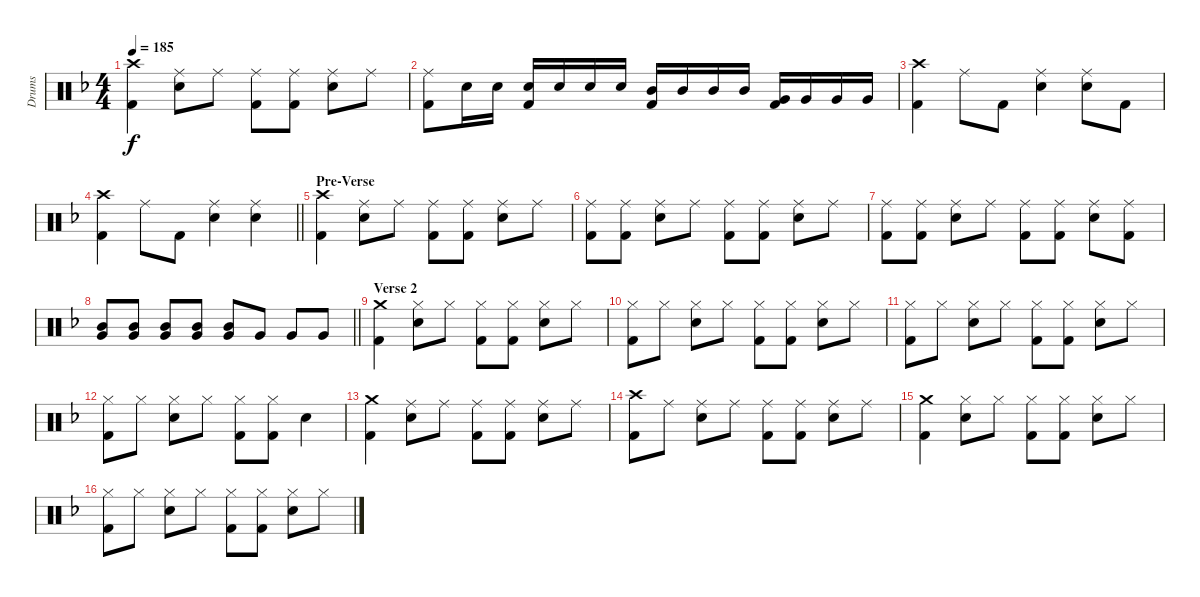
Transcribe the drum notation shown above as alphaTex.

\track ("Drums" "Drums") {instrument percussion}
\staff {score}
\articulation defaults
\ts (4 4)
\tempo 185
\clef neutral
\ks f
("Crash high (hit)" "Kick (hit) 2").4{dy f} ("Ride (middle)" "Snare (hit) 2").8 "Ride (middle)".8 ("Ride (middle)" "Kick (hit) 2").8 ("Ride (middle)" "Kick (hit) 2").8 ("Ride (middle)" "Snare (hit) 2").8 "Ride (middle)".8 |
("Ride (middle)" "Kick (hit) 2").8 "Snare (hit) 2".16 "Snare (hit) 2".16 ("Snare (hit) 2" "Kick (hit) 2").16 "Snare (hit) 2".16 "Snare (hit) 2".16 "Snare (hit) 2".16 ("Mid Tom (hit)" "Kick (hit) 2").16 "Mid Tom (hit)".16 "Mid Tom (hit)".16 "Mid Tom (hit)".16 ("Very Low Tom (hit)" "Kick (hit) 2").16 "Very Low Tom (hit)".16 "Very Low Tom (hit)".16 "Very Low Tom (hit)".16 |
("Crash high (hit)" "Kick (hit) 2").4 "Ride (middle)".8 "Kick (hit) 2".8 ("Ride (middle)" "Snare (hit) 2").4 ("Ride (middle)" "Snare (hit) 2").8 "Kick (hit) 2".8 |
\barLineRight lightlight
("Crash high (hit)" "Kick (hit) 2").4 "Ride (middle)".8 "Kick (hit) 2".8 ("Ride (middle)" "Snare (hit) 2").4 ("Ride (middle)" "Snare (hit) 2").4 |
\section ("" "Pre-Verse ")
("Crash high (hit)" "Kick (hit) 2").4 ("Ride (middle)" "Snare (hit) 2").8 "Ride (middle)".8 ("Ride (middle)" "Kick (hit) 2").8 ("Ride (middle)" "Kick (hit) 2").8 ("Ride (middle)" "Snare (hit) 2").8 "Ride (middle)".8 |
("Ride (middle)" "Kick (hit) 2").8 ("Ride (middle)" "Kick (hit) 2").8 ("Ride (middle)" "Snare (hit) 2").8 "Ride (middle)".8 ("Ride (middle)" "Kick (hit) 2").8 ("Ride (middle)" "Kick (hit) 2").8 ("Ride (middle)" "Snare (hit) 2").8 "Ride (middle)".8 |
("Ride (middle)" "Kick (hit) 2").8 ("Ride (middle)" "Kick (hit) 2").8 ("Ride (middle)" "Snare (hit) 2").8 "Ride (middle)".8 ("Ride (middle)" "Kick (hit) 2").8 ("Ride (middle)" "Kick (hit) 2").8 ("Ride (middle)" "Snare (hit) 2").8 ("Ride (middle)" "Kick (hit) 2").8 |
\barLineRight lightlight
("Mid Tom (hit)" "Very Low Tom (hit)").8 ("Mid Tom (hit)" "Very Low Tom (hit)").8 ("Mid Tom (hit)" "Very Low Tom (hit)").8 ("Mid Tom (hit)" "Very Low Tom (hit)").8 ("Mid Tom (hit)" "Very Low Tom (hit)").8 "Very Low Tom (hit)".8 "Very Low Tom (hit)".8 "Very Low Tom (hit)".8 |
\section ("" "Verse 2")
("Crash medium (hit)" "Kick (hit) 2").4 ("Hi-Hat (closed)" "Snare (hit) 2").8 "Hi-Hat (closed)".8 ("Hi-Hat (closed)" "Kick (hit) 2").8 ("Hi-Hat (closed)" "Kick (hit) 2").8 ("Hi-Hat (closed)" "Snare (hit) 2").8 "Hi-Hat (closed)".8 |
("Hi-Hat (closed)" "Kick (hit) 2").8 "Hi-Hat (closed)".8 ("Hi-Hat (closed)" "Snare (hit) 2").8 "Hi-Hat (closed)".8 ("Hi-Hat (closed)" "Kick (hit) 2").8 ("Hi-Hat (closed)" "Kick (hit) 2").8 ("Hi-Hat (closed)" "Snare (hit) 2").8 "Hi-Hat (closed)".8 |
("Hi-Hat (closed)" "Kick (hit) 2").8 "Hi-Hat (closed)".8 ("Hi-Hat (closed)" "Snare (hit) 2").8 "Hi-Hat (closed)".8 ("Hi-Hat (closed)" "Kick (hit) 2").8 ("Hi-Hat (closed)" "Kick (hit) 2").8 ("Hi-Hat (closed)" "Snare (hit) 2").8 "Hi-Hat (closed)".8 |
("Kick (hit) 2" "Hi-Hat (closed)").8 "Hi-Hat (closed)".8 ("Snare (hit) 2" "Hi-Hat (closed)").8 "Hi-Hat (closed)".8 ("Kick (hit) 2" "Hi-Hat (closed)").8 ("Kick (hit) 2" "Hi-Hat (closed)").8 "Snare (hit) 2".4 |
("Kick (hit) 2" "Crash medium (hit)").4 ("Snare (hit) 2" "Ride (middle)").8 "Ride (middle)".8 ("Kick (hit) 2" "Ride (middle)").8 ("Kick (hit) 2" "Ride (middle)").8 ("Snare (hit) 2" "Ride (middle)").8 "Ride (middle)".8 |
("Kick (hit) 2" "Crash high (hit)").8 "Ride (middle)".8 ("Snare (hit) 2" "Ride (middle)").8 "Ride (middle)".8 ("Kick (hit) 2" "Ride (middle)").8 ("Kick (hit) 2" "Ride (middle)").8 ("Snare (hit) 2" "Ride (middle)").8 "Ride (middle)".8 |
("Crash medium (hit)" "Kick (hit) 2").4 ("Hi-Hat (closed)" "Snare (hit) 2").8 "Hi-Hat (closed)".8 ("Hi-Hat (closed)" "Kick (hit) 2").8 ("Hi-Hat (closed)" "Kick (hit) 2").8 ("Hi-Hat (closed)" "Snare (hit) 2").8 "Hi-Hat (closed)".8 |
("Hi-Hat (closed)" "Kick (hit) 2").8 "Hi-Hat (closed)".8 ("Hi-Hat (closed)" "Snare (hit) 2").8 "Hi-Hat (closed)".8 ("Hi-Hat (closed)" "Kick (hit) 2").8 ("Hi-Hat (closed)" "Kick (hit) 2").8 ("Hi-Hat (closed)" "Snare (hit) 2").8 "Hi-Hat (closed)".8
